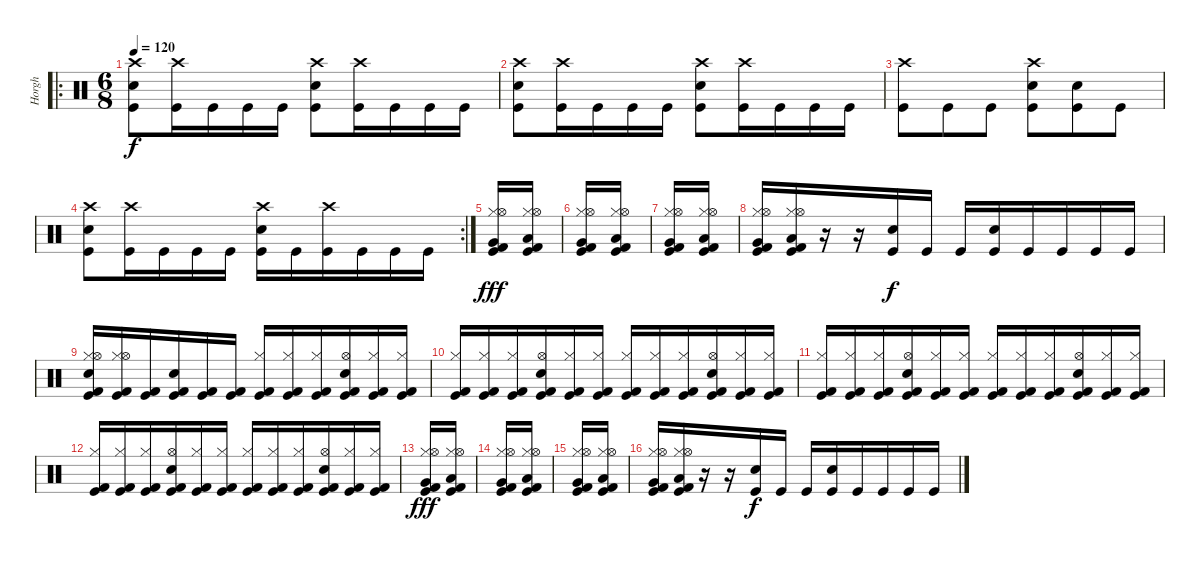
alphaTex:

\track ("Horgh" "Horgh") {instrument percussion}
\staff {score}
\articulation defaults
\ro
\ts (6 8)
\tempo 120
\clef neutral
\ks c
("Crash high (hit)" "Snare (hit) 2" "Kick (hit)").8{dy f} ("Crash high (hit)" "Kick (hit)").16 "Kick (hit)".16 "Kick (hit)".16 "Kick (hit)".16 ("Crash high (hit)" "Snare (hit) 2" "Kick (hit)").8 ("Crash high (hit)" "Kick (hit)").16 "Kick (hit)".16 "Kick (hit)".16 "Kick (hit)".16 |
("Crash high (hit)" "Snare (hit) 2" "Kick (hit)").8 ("Crash high (hit)" "Kick (hit)").16 "Kick (hit)".16 "Kick (hit)".16 "Kick (hit)".16 ("Crash high (hit)" "Snare (hit) 2" "Kick (hit)").8 ("Crash high (hit)" "Kick (hit)").16 "Kick (hit)".16 "Kick (hit)".16 "Kick (hit)".16 |
("Crash high (hit)" "Kick (hit)").8 "Kick (hit)".8 "Kick (hit)".8 ("Crash high (hit)" "Electric Snare (hit)" "Kick (hit)").8 ("Snare (hit) 2" "Kick (hit)").8 "Kick (hit)".8 |
\rc 2
("Crash high (hit)" "Snare (hit) 2" "Kick (hit)").8 ("Crash high (hit)" "Kick (hit)").16 "Kick (hit)".16 "Kick (hit)".16 "Kick (hit)".16 ("Crash high (hit)" "Snare (hit) 2" "Kick (hit)").16 "Kick (hit)".16 ("Crash high (hit)" "Kick (hit)").16 "Kick (hit)".16 "Kick (hit)".16 "Kick (hit)".16 |
("Hi-Hat (closed)" "Hi-Hat (open)" "Very Low Tom (hit)" "Kick (hit) 2" "Kick (hit)").16{dy fff} ("Hi-Hat (closed)" "Hi-Hat (open)" "Low Floor Tom (hit)" "Kick (hit) 2" "Kick (hit)").16 |
("Hi-Hat (closed)" "Hi-Hat (open)" "Very Low Tom (hit)" "Kick (hit) 2" "Kick (hit)").16 ("Hi-Hat (closed)" "Hi-Hat (open)" "Low Floor Tom (hit)" "Kick (hit) 2" "Kick (hit)").16 |
("Hi-Hat (closed)" "Hi-Hat (open)" "Very Low Tom (hit)" "Kick (hit) 2" "Kick (hit)").16 ("Hi-Hat (closed)" "Hi-Hat (open)" "Low Floor Tom (hit)" "Kick (hit) 2" "Kick (hit)").16 |
("Hi-Hat (closed)" "Hi-Hat (open)" "Very Low Tom (hit)" "Kick (hit) 2" "Kick (hit)").16 ("Hi-Hat (closed)" "Hi-Hat (open)" "Low Floor Tom (hit)" "Kick (hit) 2" "Kick (hit)").16 r.16 r.16 ("Electric Snare (hit)" "Kick (hit)").16{dy f} "Kick (hit)".16 "Kick (hit)".16 ("Electric Snare (hit)" "Kick (hit)").16 "Kick (hit)".16 "Kick (hit)".16 "Kick (hit)".16 "Kick (hit)".16 |
("Hi-Hat (closed)" "Hi-Hat (open)" "Electric Snare (hit)" "Kick (hit) 2" "Kick (hit)").16 ("Hi-Hat (closed)" "Hi-Hat (open)" "Kick (hit) 2" "Kick (hit)").16 ("Kick (hit) 2" "Kick (hit)").16 ("Electric Snare (hit)" "Kick (hit) 2" "Kick (hit)").16 ("Kick (hit) 2" "Kick (hit)").16 ("Kick (hit) 2" "Kick (hit)").16 ("Hi-Hat (closed)" "Kick (hit) 2" "Kick (hit)").16 ("Hi-Hat (closed)" "Kick (hit) 2" "Kick (hit)").16 ("Hi-Hat (closed)" "Kick (hit) 2" "Kick (hit)").16 ("Hi-Hat (open)" "Electric Snare (hit)" "Kick (hit) 2" "Kick (hit)").16 ("Hi-Hat (closed)" "Kick (hit) 2" "Kick (hit)").16 ("Hi-Hat (closed)" "Kick (hit) 2" "Kick (hit)").16 |
("Hi-Hat (closed)" "Kick (hit) 2" "Kick (hit)").16 ("Hi-Hat (closed)" "Kick (hit) 2" "Kick (hit)").16 ("Hi-Hat (closed)" "Kick (hit) 2" "Kick (hit)").16 ("Hi-Hat (open)" "Electric Snare (hit)" "Kick (hit) 2" "Kick (hit)").16 ("Hi-Hat (closed)" "Kick (hit) 2" "Kick (hit)").16 ("Hi-Hat (closed)" "Kick (hit) 2" "Kick (hit)").16 ("Hi-Hat (closed)" "Kick (hit) 2" "Kick (hit)").16 ("Hi-Hat (closed)" "Kick (hit) 2" "Kick (hit)").16 ("Hi-Hat (closed)" "Kick (hit) 2" "Kick (hit)").16 ("Hi-Hat (open)" "Electric Snare (hit)" "Kick (hit) 2" "Kick (hit)").16 ("Hi-Hat (closed)" "Kick (hit) 2" "Kick (hit)").16 ("Hi-Hat (closed)" "Kick (hit) 2" "Kick (hit)").16 |
("Hi-Hat (closed)" "Kick (hit) 2" "Kick (hit)").16 ("Hi-Hat (closed)" "Kick (hit) 2" "Kick (hit)").16 ("Hi-Hat (closed)" "Kick (hit) 2" "Kick (hit)").16 ("Hi-Hat (open)" "Electric Snare (hit)" "Kick (hit) 2" "Kick (hit)").16 ("Hi-Hat (closed)" "Kick (hit) 2" "Kick (hit)").16 ("Hi-Hat (closed)" "Kick (hit) 2" "Kick (hit)").16 ("Hi-Hat (closed)" "Kick (hit) 2" "Kick (hit)").16 ("Hi-Hat (closed)" "Kick (hit) 2" "Kick (hit)").16 ("Hi-Hat (closed)" "Kick (hit) 2" "Kick (hit)").16 ("Hi-Hat (open)" "Electric Snare (hit)" "Kick (hit) 2" "Kick (hit)").16 ("Hi-Hat (closed)" "Kick (hit) 2" "Kick (hit)").16 ("Hi-Hat (closed)" "Kick (hit) 2" "Kick (hit)").16 |
("Hi-Hat (closed)" "Kick (hit) 2" "Kick (hit)").16 ("Hi-Hat (closed)" "Kick (hit) 2" "Kick (hit)").16 ("Hi-Hat (closed)" "Kick (hit) 2" "Kick (hit)").16 ("Hi-Hat (open)" "Electric Snare (hit)" "Kick (hit) 2" "Kick (hit)").16 ("Hi-Hat (closed)" "Kick (hit) 2" "Kick (hit)").16 ("Hi-Hat (closed)" "Kick (hit) 2" "Kick (hit)").16 ("Hi-Hat (closed)" "Kick (hit) 2" "Kick (hit)").16 ("Hi-Hat (closed)" "Kick (hit) 2" "Kick (hit)").16 ("Hi-Hat (closed)" "Kick (hit) 2" "Kick (hit)").16 ("Hi-Hat (open)" "Electric Snare (hit)" "Kick (hit) 2" "Kick (hit)").16 ("Hi-Hat (closed)" "Kick (hit) 2" "Kick (hit)").16 ("Hi-Hat (closed)" "Kick (hit) 2" "Kick (hit)").16 |
("Hi-Hat (closed)" "Hi-Hat (open)" "Very Low Tom (hit)" "Kick (hit) 2" "Kick (hit)").16{dy fff} ("Hi-Hat (closed)" "Hi-Hat (open)" "Low Floor Tom (hit)" "Kick (hit) 2" "Kick (hit)").16 |
("Hi-Hat (closed)" "Hi-Hat (open)" "Very Low Tom (hit)" "Kick (hit) 2" "Kick (hit)").16 ("Hi-Hat (closed)" "Hi-Hat (open)" "Low Floor Tom (hit)" "Kick (hit) 2" "Kick (hit)").16 |
("Hi-Hat (closed)" "Hi-Hat (open)" "Very Low Tom (hit)" "Kick (hit) 2" "Kick (hit)").16 ("Hi-Hat (closed)" "Hi-Hat (open)" "Low Floor Tom (hit)" "Kick (hit) 2" "Kick (hit)").16 |
("Hi-Hat (closed)" "Hi-Hat (open)" "Very Low Tom (hit)" "Kick (hit) 2" "Kick (hit)").16 ("Hi-Hat (closed)" "Hi-Hat (open)" "Low Floor Tom (hit)" "Kick (hit) 2" "Kick (hit)").16 r.16 r.16 ("Electric Snare (hit)" "Kick (hit)").16{dy f} "Kick (hit)".16 "Kick (hit)".16 ("Electric Snare (hit)" "Kick (hit)").16 "Kick (hit)".16 "Kick (hit)".16 "Kick (hit)".16 "Kick (hit)".16
